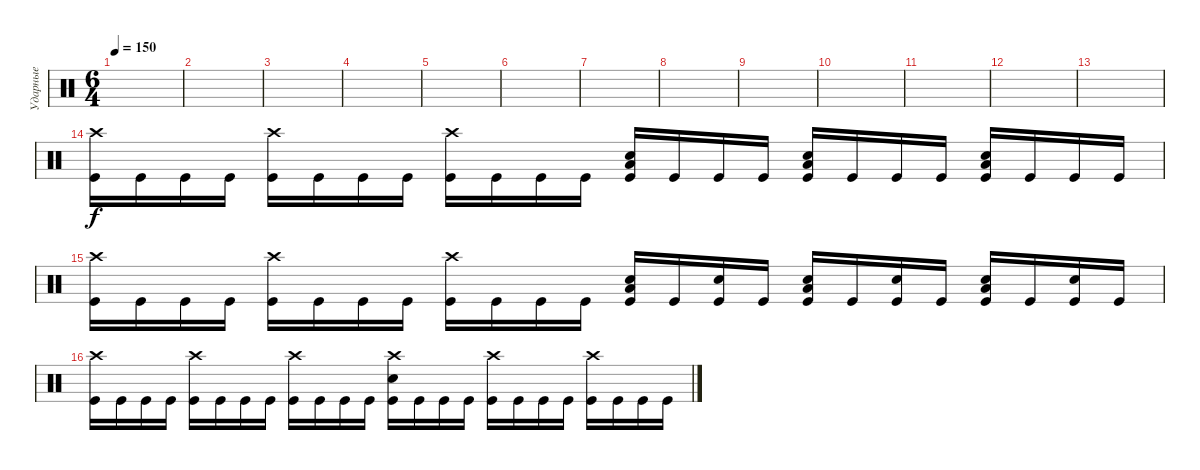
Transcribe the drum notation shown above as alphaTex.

\track ("Ударные" "Ударные") {instrument percussion}
\staff {score}
\articulation defaults
\ts (6 4)
\tempo 150
\clef neutral
\ks c
|
|
|
|
|
|
|
|
|
|
|
|
|
("Crash high (hit)" "Kick (hit)").16 "Kick (hit)".16 "Kick (hit)".16 "Kick (hit)".16 ("Crash high (hit)" "Kick (hit)").16 "Kick (hit)".16 "Kick (hit)".16 "Kick (hit)".16 ("Crash high (hit)" "Kick (hit)").16 "Kick (hit)".16 "Kick (hit)".16 "Kick (hit)".16 ("Low Floor Tom (hit)" "Snare (hit) 2" "Kick (hit)").16 "Kick (hit)".16 "Kick (hit)".16 "Kick (hit)".16 ("Low Floor Tom (hit)" "Snare (hit) 2" "Kick (hit)").16 "Kick (hit)".16 "Kick (hit)".16 "Kick (hit)".16 ("Low Floor Tom (hit)" "Snare (hit) 2" "Kick (hit)").16 "Kick (hit)".16 "Kick (hit)".16 "Kick (hit)".16 |
("Crash high (hit)" "Kick (hit)").16 "Kick (hit)".16 "Kick (hit)".16 "Kick (hit)".16 ("Crash high (hit)" "Kick (hit)").16 "Kick (hit)".16 "Kick (hit)".16 "Kick (hit)".16 ("Crash high (hit)" "Kick (hit)").16 "Kick (hit)".16 "Kick (hit)".16 "Kick (hit)".16 ("Low Floor Tom (hit)" "Snare (hit) 2" "Kick (hit)").16 "Kick (hit)".16 ("Snare (hit) 2" "Kick (hit)").16 "Kick (hit)".16 ("Low Floor Tom (hit)" "Snare (hit) 2" "Kick (hit)").16 "Kick (hit)".16 ("Snare (hit) 2" "Kick (hit)").16 "Kick (hit)".16 ("Low Floor Tom (hit)" "Snare (hit) 2" "Kick (hit)").16 "Kick (hit)".16 ("Snare (hit) 2" "Kick (hit)").16 "Kick (hit)".16 |
("Crash high (hit)" "Kick (hit)").16 "Kick (hit)".16 "Kick (hit)".16 "Kick (hit)".16 ("Crash high (hit)" "Kick (hit)").16 "Kick (hit)".16 "Kick (hit)".16 "Kick (hit)".16 ("Crash high (hit)" "Kick (hit)").16 "Kick (hit)".16 "Kick (hit)".16 "Kick (hit)".16 ("Crash high (hit)" "Snare (hit) 2" "Kick (hit)").16 "Kick (hit)".16 "Kick (hit)".16 "Kick (hit)".16 ("Crash high (hit)" "Kick (hit)").16 "Kick (hit)".16 "Kick (hit)".16 "Kick (hit)".16 ("Crash high (hit)" "Kick (hit)").16 "Kick (hit)".16 "Kick (hit)".16 "Kick (hit)".16
